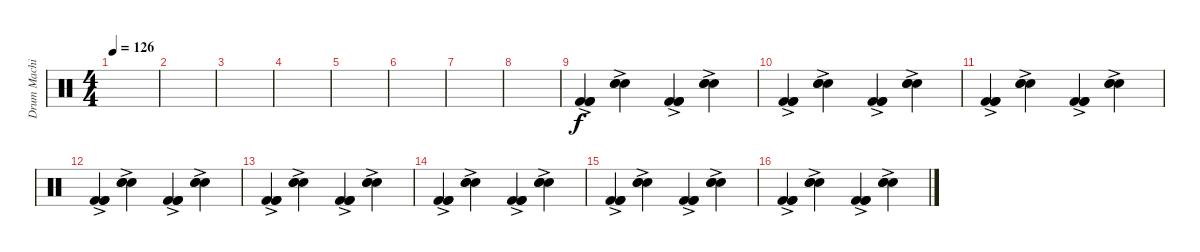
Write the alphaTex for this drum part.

\track ("Drum Machine 2" "Drum Machi") {instrument percussion}
\staff {score}
\articulation defaults
\ts (4 4)
\tempo 126
\clef neutral
\ks c
|
|
|
|
|
|
|
|
("Kick (hit) 2"{ac} "Kick (hit) 2"{ac} "Kick (hit) 2"{ac}).4 ("Electric Snare (hit)"{ac} "Electric Snare (hit)"{ac} "Electric Snare (hit)"{ac}).4 ("Kick (hit) 2"{ac} "Kick (hit) 2"{ac} "Kick (hit) 2"{ac}).4 ("Electric Snare (hit)"{ac} "Electric Snare (hit)"{ac} "Electric Snare (hit)"{ac}).4 |
("Kick (hit) 2"{ac} "Kick (hit) 2"{ac} "Kick (hit) 2"{ac}).4 ("Electric Snare (hit)"{ac} "Electric Snare (hit)"{ac} "Electric Snare (hit)"{ac}).4 ("Kick (hit) 2"{ac} "Kick (hit) 2"{ac} "Kick (hit) 2"{ac}).4 ("Electric Snare (hit)"{ac} "Electric Snare (hit)"{ac} "Electric Snare (hit)"{ac}).4 |
("Kick (hit) 2"{ac} "Kick (hit) 2"{ac} "Kick (hit) 2"{ac}).4 ("Electric Snare (hit)"{ac} "Electric Snare (hit)"{ac} "Electric Snare (hit)"{ac}).4 ("Kick (hit) 2"{ac} "Kick (hit) 2"{ac} "Kick (hit) 2"{ac}).4 ("Electric Snare (hit)"{ac} "Electric Snare (hit)"{ac} "Electric Snare (hit)"{ac}).4 |
("Kick (hit) 2"{ac} "Kick (hit) 2"{ac} "Kick (hit) 2"{ac}).4 ("Electric Snare (hit)"{ac} "Electric Snare (hit)"{ac} "Electric Snare (hit)"{ac}).4 ("Kick (hit) 2"{ac} "Kick (hit) 2"{ac} "Kick (hit) 2"{ac}).4 ("Electric Snare (hit)"{ac} "Electric Snare (hit)"{ac} "Electric Snare (hit)"{ac}).4 |
("Kick (hit) 2"{ac} "Kick (hit) 2"{ac} "Kick (hit) 2"{ac}).4 ("Electric Snare (hit)"{ac} "Electric Snare (hit)"{ac} "Electric Snare (hit)"{ac}).4 ("Kick (hit) 2"{ac} "Kick (hit) 2"{ac} "Kick (hit) 2"{ac}).4 ("Electric Snare (hit)"{ac} "Electric Snare (hit)"{ac} "Electric Snare (hit)"{ac}).4 |
("Kick (hit) 2"{ac} "Kick (hit) 2"{ac} "Kick (hit) 2"{ac}).4 ("Electric Snare (hit)"{ac} "Electric Snare (hit)"{ac} "Electric Snare (hit)"{ac}).4 ("Kick (hit) 2"{ac} "Kick (hit) 2"{ac} "Kick (hit) 2"{ac}).4 ("Electric Snare (hit)"{ac} "Electric Snare (hit)"{ac} "Electric Snare (hit)"{ac}).4 |
("Kick (hit) 2"{ac} "Kick (hit) 2"{ac} "Kick (hit) 2"{ac}).4 ("Electric Snare (hit)"{ac} "Electric Snare (hit)"{ac} "Electric Snare (hit)"{ac}).4 ("Kick (hit) 2"{ac} "Kick (hit) 2"{ac} "Kick (hit) 2"{ac}).4 ("Electric Snare (hit)"{ac} "Electric Snare (hit)"{ac} "Electric Snare (hit)"{ac}).4 |
("Kick (hit) 2"{ac} "Kick (hit) 2"{ac} "Kick (hit) 2"{ac}).4 ("Electric Snare (hit)"{ac} "Electric Snare (hit)"{ac} "Electric Snare (hit)"{ac}).4 ("Kick (hit) 2"{ac} "Kick (hit) 2"{ac} "Kick (hit) 2"{ac}).4 ("Electric Snare (hit)"{ac} "Electric Snare (hit)"{ac} "Electric Snare (hit)"{ac}).4
